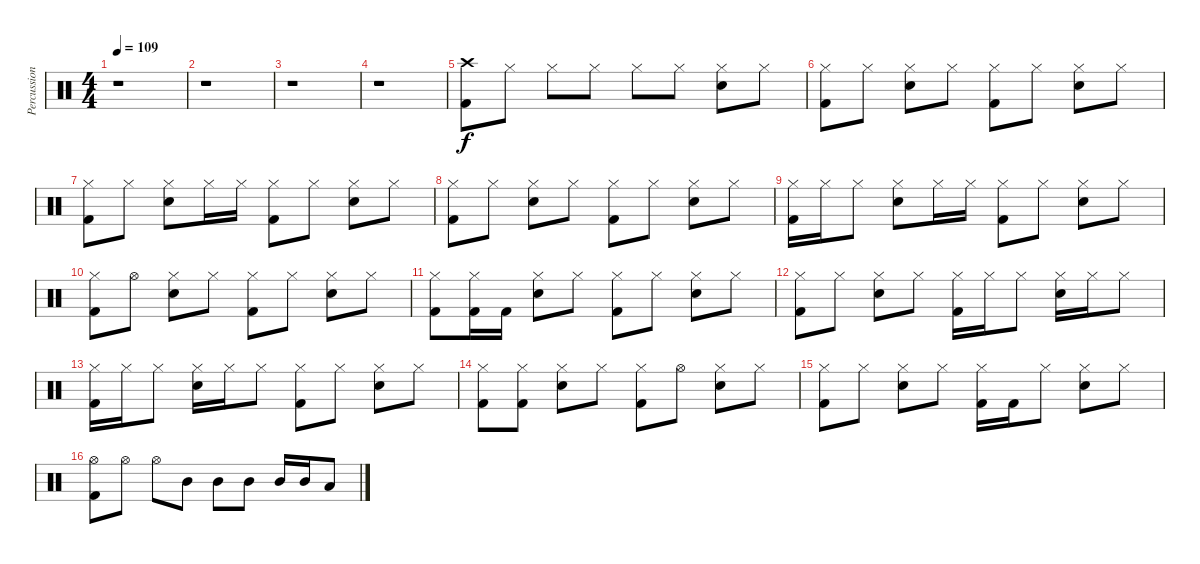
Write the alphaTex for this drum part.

\track ("Percussion" "Percussion") {instrument percussion}
\staff {score}
\articulation defaults
\ts (4 4)
\tempo 109
\clef neutral
\ks c
r.1{dy f} |
r.1 |
r.1 |
r.1 |
("Crash high (hit)" "Kick (hit) 2").8 "Hi-Hat (closed)".8 "Hi-Hat (closed)".8 "Hi-Hat (closed)".8 "Hi-Hat (closed)".8 "Hi-Hat (closed)".8 ("Hi-Hat (closed)" "Electric Snare (hit)").8 "Hi-Hat (closed)".8 |
("Hi-Hat (closed)" "Kick (hit) 2").8 "Hi-Hat (closed)".8 ("Hi-Hat (closed)" "Electric Snare (hit)").8 "Hi-Hat (closed)".8 ("Hi-Hat (closed)" "Kick (hit) 2").8 "Hi-Hat (closed)".8 ("Hi-Hat (closed)" "Electric Snare (hit)").8 "Hi-Hat (closed)".8 |
("Hi-Hat (closed)" "Kick (hit) 2").8 "Hi-Hat (closed)".8 ("Hi-Hat (closed)" "Electric Snare (hit)").8 "Hi-Hat (closed)".16 "Hi-Hat (closed)".16 ("Hi-Hat (closed)" "Kick (hit) 2").8 "Hi-Hat (closed)".8 ("Hi-Hat (closed)" "Electric Snare (hit)").8 "Hi-Hat (closed)".8 |
("Hi-Hat (closed)" "Kick (hit) 2").8 "Hi-Hat (closed)".8 ("Hi-Hat (closed)" "Electric Snare (hit)").8 "Hi-Hat (closed)".8 ("Hi-Hat (closed)" "Kick (hit) 2").8 "Hi-Hat (closed)".8 ("Hi-Hat (closed)" "Electric Snare (hit)").8 "Hi-Hat (closed)".8 |
("Hi-Hat (closed)" "Kick (hit) 2").16 "Hi-Hat (closed)".16 "Hi-Hat (closed)".8 ("Hi-Hat (closed)" "Electric Snare (hit)").8 "Hi-Hat (closed)".16 "Hi-Hat (closed)".16 ("Hi-Hat (closed)" "Kick (hit) 2").8 "Hi-Hat (closed)".8 ("Hi-Hat (closed)" "Electric Snare (hit)").8 "Hi-Hat (closed)".8 |
("Hi-Hat (closed)" "Kick (hit) 2").8 "Hi-Hat (open)".8 ("Hi-Hat (closed)" "Electric Snare (hit)").8 "Hi-Hat (closed)".8 ("Hi-Hat (closed)" "Kick (hit) 2").8 "Hi-Hat (closed)".8 ("Hi-Hat (closed)" "Electric Snare (hit)").8 "Hi-Hat (closed)".8 |
("Hi-Hat (closed)" "Kick (hit) 2").8 ("Hi-Hat (closed)" "Kick (hit) 2").16 "Kick (hit) 2".16 ("Hi-Hat (closed)" "Electric Snare (hit)").8 "Hi-Hat (closed)".8 ("Hi-Hat (closed)" "Kick (hit) 2").8 "Hi-Hat (closed)".8 ("Hi-Hat (closed)" "Electric Snare (hit)").8 "Hi-Hat (closed)".8 |
("Hi-Hat (closed)" "Kick (hit) 2").8 "Hi-Hat (closed)".8 ("Hi-Hat (closed)" "Electric Snare (hit)").8 "Hi-Hat (closed)".8 ("Hi-Hat (closed)" "Kick (hit) 2").16 "Hi-Hat (closed)".16 "Hi-Hat (closed)".8 ("Hi-Hat (closed)" "Electric Snare (hit)").16 "Hi-Hat (closed)".16 "Hi-Hat (closed)".8 |
("Hi-Hat (closed)" "Kick (hit) 2").16 "Hi-Hat (closed)".16 "Hi-Hat (closed)".8 ("Hi-Hat (closed)" "Electric Snare (hit)").16 "Hi-Hat (closed)".16 "Hi-Hat (closed)".8 ("Hi-Hat (closed)" "Kick (hit) 2").8 "Hi-Hat (closed)".8 ("Hi-Hat (closed)" "Electric Snare (hit)").8 "Hi-Hat (closed)".8 |
("Hi-Hat (closed)" "Kick (hit) 2").8 ("Hi-Hat (closed)" "Kick (hit) 2").8 ("Hi-Hat (closed)" "Electric Snare (hit)").8 "Hi-Hat (closed)".8 ("Hi-Hat (closed)" "Kick (hit) 2").8 "Hi-Hat (open)".8 ("Hi-Hat (closed)" "Electric Snare (hit)").8 "Hi-Hat (closed)".8 |
("Hi-Hat (closed)" "Kick (hit) 2").8 "Hi-Hat (closed)".8 ("Hi-Hat (closed)" "Electric Snare (hit)").8 "Hi-Hat (closed)".8 ("Hi-Hat (closed)" "Kick (hit) 2").16 "Kick (hit) 2".16 "Hi-Hat (closed)".8 ("Hi-Hat (closed)" "Electric Snare (hit)").8 "Hi-Hat (closed)".8 |
("Hi-Hat (open)" "Kick (hit) 2").8 "Hi-Hat (open)".8 "Hi-Hat (open)".8 "Mid Tom (hit)".8 "Mid Tom (hit)".8 "Mid Tom (hit)".8 "Mid Tom (hit)".16 "Mid Tom (hit)".16 "Low Tom (hit)".8
